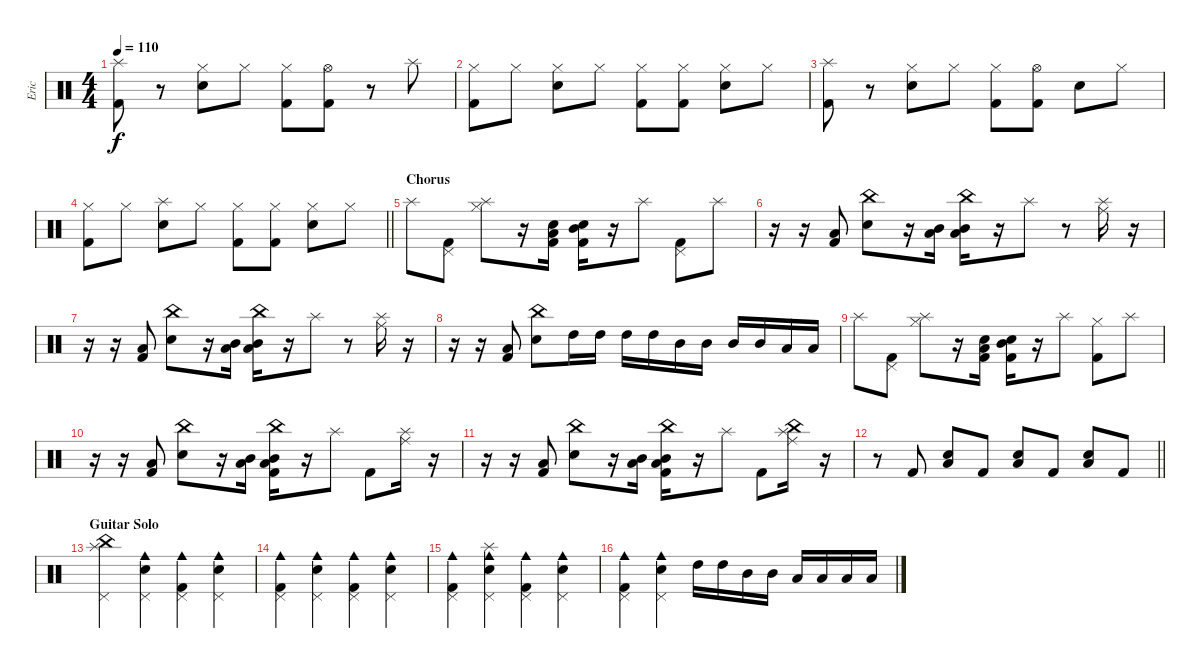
\track ("Eric" "Eric") {instrument percussion}
\staff {score}
\articulation defaults
\ts (4 4)
\tempo 110
\clef neutral
\ks c
("Splash (hit)" "Kick (hit) 2").8{dy f} r.8 ("Hi-Hat (closed)" "Snare (hit) 2").8 "Hi-Hat (closed)".8 ("Hi-Hat (closed)" "Kick (hit) 2").8 ("Hi-Hat (open)" "Kick (hit) 2").8 r.8 "Splash (hit)".8 |
("Hi-Hat (closed)" "Kick (hit) 2").8 "Hi-Hat (closed)".8 ("Hi-Hat (closed)" "Snare (hit) 2").8 "Hi-Hat (closed)".8 ("Hi-Hat (closed)" "Kick (hit) 2").8 ("Hi-Hat (closed)" "Kick (hit) 2").8 ("Hi-Hat (closed)" "Snare (hit) 2").8 "Hi-Hat (closed)".8 |
("Splash (hit)" "Kick (hit) 2").8 r.8 ("Hi-Hat (closed)" "Snare (hit) 2").8 "Hi-Hat (closed)".8 ("Hi-Hat (closed)" "Kick (hit) 2").8 ("Hi-Hat (open)" "Kick (hit) 2").8 "Snare (hit) 2".8 "Hi-Hat (closed)".8 |
\barLineRight lightlight
("Hi-Hat (closed)" "Kick (hit) 2").8 "Hi-Hat (closed)".8 ("Splash (hit)" "Snare (hit) 2").8 "Hi-Hat (closed)".8 ("Hi-Hat (closed)" "Kick (hit) 2").8 ("Hi-Hat (closed)" "Kick (hit) 2").8 ("Hi-Hat (closed)" "Snare (hit) 2").8 "Hi-Hat (closed)".8 |
\section ("" "Chorus")
"Splash (hit)".8 ("Pedal Hi-Hat (hit)" "Kick (hit) 2").8 ("Hi-Hat (closed)" "Splash (hit)").8 r.16 ("Low Floor Tom (hit)" "Snare (hit) 2" "Kick (hit) 2").16 ("Mid Tom (hit)" "Snare (hit) 2" "Kick (hit) 2").16 r.16 "Splash (hit)".8 ("Pedal Hi-Hat (hit)" "Kick (hit) 2").8 "Splash (hit)".8 |
r.16 r.16 ("Low Floor Tom (hit)" "Kick (hit) 2").8 ("China (hit)" "Snare (hit) 2").8 r.16 ("Mid Tom (hit)" "Low Floor Tom (hit)").16 ("China (hit)" "Low Floor Tom (hit)" "Mid Tom (hit)").16 r.16 "Splash (hit)".8 r.8 ("Ride (middle)" "Splash (hit)").16 r.16 |
r.16 r.16 ("Low Floor Tom (hit)" "Kick (hit) 2").8 ("China (hit)" "Snare (hit) 2").8 r.16 ("Mid Tom (hit)" "Low Floor Tom (hit)").16 ("China (hit)" "Low Floor Tom (hit)" "Mid Tom (hit)").16 r.16 "Splash (hit)".8 r.8 ("Ride (middle)" "Splash (hit)").16 r.16 |
r.16 r.16 ("Low Floor Tom (hit)" "Kick (hit) 2").8 ("China (hit)" "Snare (hit) 2").8 "High Tom (hit)".16 "High Tom (hit)".16 "High Tom (hit)".16 "High Tom (hit)".16 "Mid Tom (hit)".16 "Mid Tom (hit)".16 "Mid Tom (hit)".16 "Mid Tom (hit)".16 "Low Floor Tom (hit)".16 "Low Floor Tom (hit)".16 |
"Splash (hit)".8 ("Pedal Hi-Hat (hit)" "Kick (hit) 2").8 ("Hi-Hat (closed)" "Splash (hit)").8 r.16 ("Low Floor Tom (hit)" "Snare (hit) 2" "Kick (hit) 2").16 ("Mid Tom (hit)" "Snare (hit) 2" "Kick (hit) 2").16 r.16 "Splash (hit)".8 ("Hi-Hat (closed)" "Kick (hit) 2").8 "Splash (hit)".8 |
r.16 r.16 ("Low Floor Tom (hit)" "Kick (hit) 2").8 ("China (hit)" "Snare (hit) 2").8 r.16 ("Mid Tom (hit)" "Low Floor Tom (hit)").16 ("China (hit)" "Low Floor Tom (hit)" "Mid Tom (hit)" "Kick (hit) 2").16 r.16 "Splash (hit)".8 "Kick (hit) 2".8 ("Ride (middle)" "Splash (hit)").16 r.16 |
r.16 r.16 ("Low Floor Tom (hit)" "Kick (hit) 2").8 ("China (hit)" "Snare (hit) 2").8 r.16 ("Mid Tom (hit)" "Low Floor Tom (hit)").16 ("China (hit)" "Low Floor Tom (hit)" "Mid Tom (hit)" "Kick (hit) 2").16 r.16 "Splash (hit)".8 "Kick (hit) 2".8 ("Ride (middle)" "Splash (hit)" "China (hit)").16 r.16 |
\barLineRight lightlight
r.8 "Kick (hit) 2".8 ("Snare (hit) 2" "Low Floor Tom (hit)").8 "Kick (hit) 2".8 ("Snare (hit) 2" "Low Floor Tom (hit)").8 "Kick (hit) 2".8 ("Snare (hit) 2" "Low Floor Tom (hit)").8 "Kick (hit) 2".8 |
\section ("" "Guitar Solo")
("Splash (hit)" "China (hit)" "Pedal Hi-Hat (hit)").4 ("Cowbell medium (hit)" "Pedal Hi-Hat (hit)" "Snare (hit) 2").4 ("Cowbell medium (hit)" "Pedal Hi-Hat (hit)" "Kick (hit) 2").4 ("Cowbell medium (hit)" "Pedal Hi-Hat (hit)" "Snare (hit) 2").4 |
("Cowbell medium (hit)" "Pedal Hi-Hat (hit)" "Kick (hit) 2").4 ("Cowbell medium (hit)" "Pedal Hi-Hat (hit)" "Snare (hit) 2").4 ("Cowbell medium (hit)" "Pedal Hi-Hat (hit)" "Kick (hit) 2").4 ("Cowbell medium (hit)" "Pedal Hi-Hat (hit)" "Snare (hit) 2").4 |
("Cowbell medium (hit)" "Pedal Hi-Hat (hit)" "Kick (hit) 2").4 ("Cowbell medium (hit)" "Splash (hit)" "Snare (hit) 2" "Pedal Hi-Hat (hit)").4 ("Cowbell medium (hit)" "Pedal Hi-Hat (hit)" "Kick (hit) 2").4 ("Cowbell medium (hit)" "Pedal Hi-Hat (hit)" "Snare (hit) 2").4 |
("Cowbell medium (hit)" "Pedal Hi-Hat (hit)" "Kick (hit) 2").4 ("Cowbell medium (hit)" "Pedal Hi-Hat (hit)" "Snare (hit) 2").4 "High Tom (hit)".16 "High Tom (hit)".16 "Mid Tom (hit)".16 "Mid Tom (hit)".16 "Low Tom (hit)".16 "Low Tom (hit)".16 "Low Floor Tom (hit)".16 "Low Floor Tom (hit)".16
